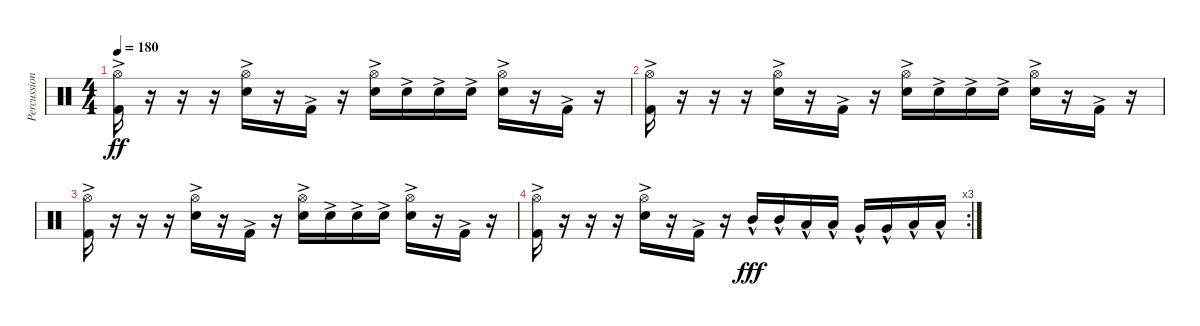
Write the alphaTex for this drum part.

\track ("Percussion" "Percussion") {instrument percussion}
\staff {score}
\articulation defaults
\ts (4 4)
\tempo 180
\clef neutral
\ks c
("Hi-Hat (open)"{ac} "Kick (hit) 2"{ac}).16{dy ff} r.16 r.16 r.16 ("Hi-Hat (open)"{ac} "Snare (hit) 2"{ac}).16 r.16 "Kick (hit) 2"{ac}.16 r.16 ("Hi-Hat (open)"{ac} "Snare (hit) 2"{ac}).16 "Snare (hit) 2"{ac}.16 "Snare (hit) 2"{ac}.16 "Snare (hit) 2"{ac}.16 ("Hi-Hat (open)"{ac} "Snare (hit) 2"{ac}).16 r.16 "Kick (hit) 2"{ac}.16 r.16 |
("Hi-Hat (open)"{ac} "Kick (hit) 2"{ac}).16 r.16 r.16 r.16 ("Hi-Hat (open)"{ac} "Snare (hit) 2"{ac}).16 r.16 "Kick (hit) 2"{ac}.16 r.16 ("Hi-Hat (open)"{ac} "Snare (hit) 2"{ac}).16 "Snare (hit) 2"{ac}.16 "Snare (hit) 2"{ac}.16 "Snare (hit) 2"{ac}.16 ("Hi-Hat (open)"{ac} "Snare (hit) 2"{ac}).16 r.16 "Kick (hit) 2"{ac}.16 r.16 |
("Hi-Hat (open)"{ac} "Kick (hit) 2"{ac}).16 r.16 r.16 r.16 ("Hi-Hat (open)"{ac} "Snare (hit) 2"{ac}).16 r.16 "Kick (hit) 2"{ac}.16 r.16 ("Hi-Hat (open)"{ac} "Snare (hit) 2"{ac}).16 "Snare (hit) 2"{ac}.16 "Snare (hit) 2"{ac}.16 "Snare (hit) 2"{ac}.16 ("Hi-Hat (open)"{ac} "Snare (hit) 2"{ac}).16 r.16 "Kick (hit) 2"{ac}.16 r.16 |
\rc 3
("Hi-Hat (open)"{ac} "Kick (hit) 2"{ac}).16 r.16 r.16 r.16 ("Hi-Hat (open)"{ac} "Snare (hit) 2"{ac}).16 r.16 "Kick (hit) 2"{ac}.16 r.16 "Mid Tom (hit)"{hac}.16{dy fff} "Mid Tom (hit)"{hac}.16 "Low Tom (hit)"{hac}.16 "Low Tom (hit)"{hac}.16 "Very Low Tom (hit)"{hac}.16 "Very Low Tom (hit)"{hac}.16 "Low Floor Tom (hit)"{hac}.16 "Low Floor Tom (hit)"{hac}.16
